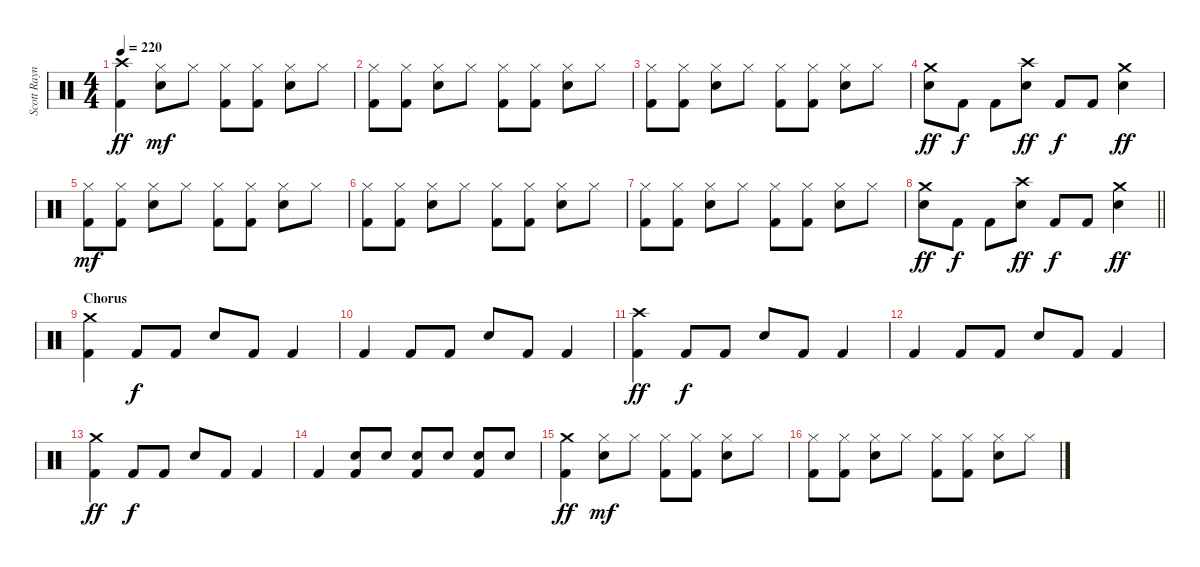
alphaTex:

\track ("Scott Raynor - Drums" "Scott Rayn") {instrument percussion}
\staff {score}
\articulation defaults
\ts (4 4)
\tempo 220
\clef neutral
\ks c
("Crash high (hit)" "Kick (hit) 2").4{dy ff} ("Hi-Hat (closed)" "Electric Snare (hit)").8{dy mf} "Hi-Hat (closed)".8 ("Hi-Hat (closed)" "Kick (hit) 2").8 ("Hi-Hat (closed)" "Kick (hit) 2").8 ("Hi-Hat (closed)" "Electric Snare (hit)").8 "Hi-Hat (closed)".8 |
("Hi-Hat (closed)" "Kick (hit) 2").8 ("Hi-Hat (closed)" "Kick (hit) 2").8 ("Hi-Hat (closed)" "Electric Snare (hit)").8 "Hi-Hat (closed)".8 ("Hi-Hat (closed)" "Kick (hit) 2").8 ("Hi-Hat (closed)" "Kick (hit) 2").8 ("Hi-Hat (closed)" "Electric Snare (hit)").8 "Hi-Hat (closed)".8 |
("Hi-Hat (closed)" "Kick (hit) 2").8 ("Hi-Hat (closed)" "Kick (hit) 2").8 ("Hi-Hat (closed)" "Electric Snare (hit)").8 "Hi-Hat (closed)".8 ("Hi-Hat (closed)" "Kick (hit) 2").8 ("Hi-Hat (closed)" "Kick (hit) 2").8 ("Hi-Hat (closed)" "Electric Snare (hit)").8 "Hi-Hat (closed)".8 |
("Crash medium (hit)" "Electric Snare (hit)").8{dy ff} "Kick (hit) 2".8{dy f} "Kick (hit) 2".8 ("Crash high (hit)" "Electric Snare (hit)").8{dy ff} "Kick (hit) 2".8{dy f} "Kick (hit) 2".8 ("Crash medium (hit)" "Electric Snare (hit)").4{dy ff} |
("Hi-Hat (closed)" "Kick (hit) 2").8{dy mf} ("Hi-Hat (closed)" "Kick (hit) 2").8 ("Hi-Hat (closed)" "Electric Snare (hit)").8 "Hi-Hat (closed)".8 ("Hi-Hat (closed)" "Kick (hit) 2").8 ("Hi-Hat (closed)" "Kick (hit) 2").8 ("Hi-Hat (closed)" "Electric Snare (hit)").8 "Hi-Hat (closed)".8 |
("Hi-Hat (closed)" "Kick (hit) 2").8 ("Hi-Hat (closed)" "Kick (hit) 2").8 ("Hi-Hat (closed)" "Electric Snare (hit)").8 "Hi-Hat (closed)".8 ("Hi-Hat (closed)" "Kick (hit) 2").8 ("Hi-Hat (closed)" "Kick (hit) 2").8 ("Hi-Hat (closed)" "Electric Snare (hit)").8 "Hi-Hat (closed)".8 |
("Hi-Hat (closed)" "Kick (hit) 2").8 ("Hi-Hat (closed)" "Kick (hit) 2").8 ("Hi-Hat (closed)" "Electric Snare (hit)").8 "Hi-Hat (closed)".8 ("Hi-Hat (closed)" "Kick (hit) 2").8 ("Hi-Hat (closed)" "Kick (hit) 2").8 ("Hi-Hat (closed)" "Electric Snare (hit)").8 "Hi-Hat (closed)".8 |
\barLineRight lightlight
("Crash medium (hit)" "Electric Snare (hit)").8{dy ff} "Kick (hit) 2".8{dy f} "Kick (hit) 2".8 ("Crash high (hit)" "Electric Snare (hit)").8{dy ff} "Kick (hit) 2".8{dy f} "Kick (hit) 2".8 ("Crash medium (hit)" "Electric Snare (hit)").4{dy ff} |
\section ("" "Chorus")
("Crash medium (hit)" "Kick (hit) 2").4 "Kick (hit) 2".8{dy f} "Kick (hit) 2".8 "Electric Snare (hit)".8 "Kick (hit) 2".8 "Kick (hit) 2".4 |
"Kick (hit) 2".4 "Kick (hit) 2".8 "Kick (hit) 2".8 "Electric Snare (hit)".8 "Kick (hit) 2".8 "Kick (hit) 2".4 |
("Crash high (hit)" "Kick (hit) 2").4{dy ff} "Kick (hit) 2".8{dy f} "Kick (hit) 2".8 "Electric Snare (hit)".8 "Kick (hit) 2".8 "Kick (hit) 2".4 |
"Kick (hit) 2".4 "Kick (hit) 2".8 "Kick (hit) 2".8 "Electric Snare (hit)".8 "Kick (hit) 2".8 "Kick (hit) 2".4 |
("Crash medium (hit)" "Kick (hit) 2").4{dy ff} "Kick (hit) 2".8{dy f} "Kick (hit) 2".8 "Electric Snare (hit)".8 "Kick (hit) 2".8 "Kick (hit) 2".4 |
"Kick (hit) 2".4 ("Electric Snare (hit)" "Kick (hit) 2").8 "Electric Snare (hit)".8 ("Electric Snare (hit)" "Kick (hit) 2").8 "Electric Snare (hit)".8 ("Electric Snare (hit)" "Kick (hit) 2").8 "Electric Snare (hit)".8 |
("Crash medium (hit)" "Kick (hit) 2").4{dy ff} ("Hi-Hat (closed)" "Electric Snare (hit)").8{dy mf} "Hi-Hat (closed)".8 ("Hi-Hat (closed)" "Kick (hit) 2").8 ("Hi-Hat (closed)" "Kick (hit) 2").8 ("Hi-Hat (closed)" "Electric Snare (hit)").8 "Hi-Hat (closed)".8 |
("Hi-Hat (closed)" "Kick (hit) 2").8 ("Hi-Hat (closed)" "Kick (hit) 2").8 ("Hi-Hat (closed)" "Electric Snare (hit)").8 "Hi-Hat (closed)".8 ("Hi-Hat (closed)" "Kick (hit) 2").8 ("Hi-Hat (closed)" "Kick (hit) 2").8 ("Hi-Hat (closed)" "Electric Snare (hit)").8 "Hi-Hat (closed)".8
